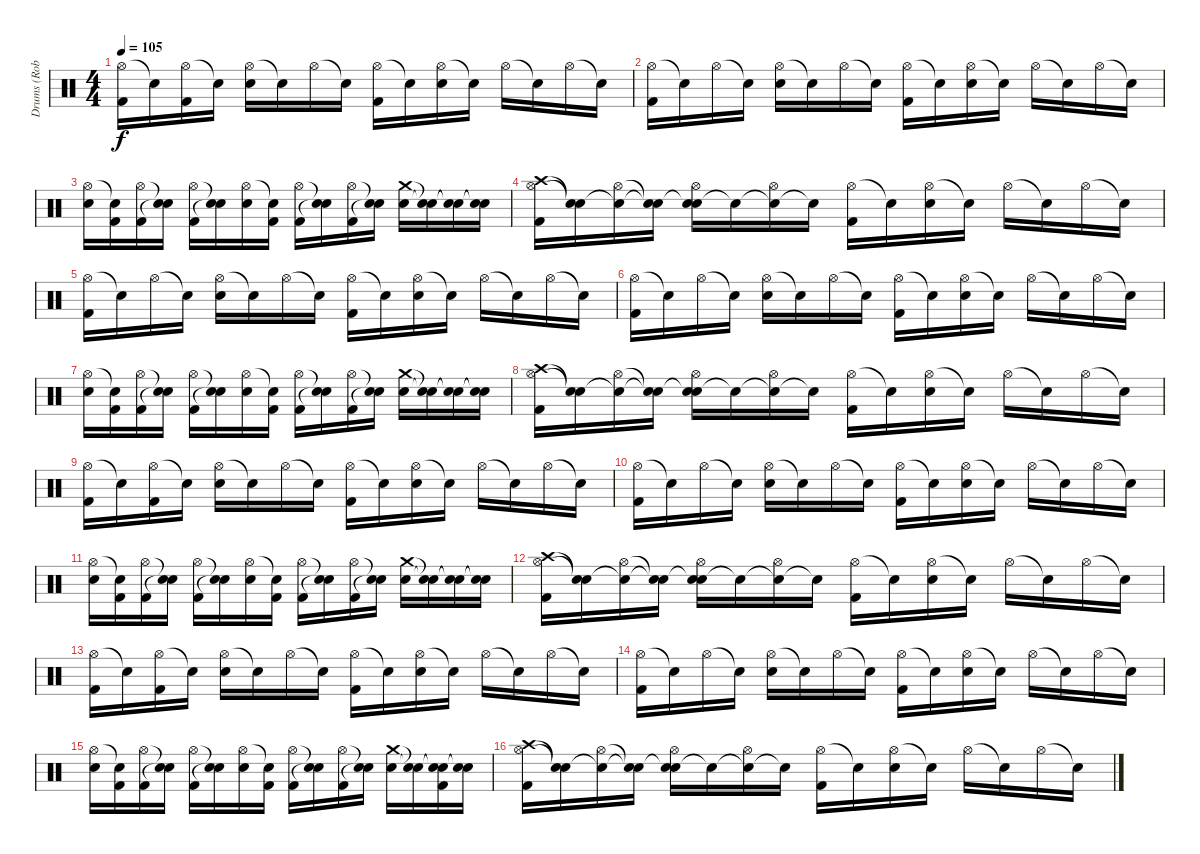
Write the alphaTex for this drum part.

\track ("Drums (Rob Bourdon)" "Drums (Rob") {instrument percussion}
\staff {score}
\articulation defaults
\ts (4 4)
\tempo 105
\clef neutral
\ks c
("Hi-Hat (open)" "Kick (hit) 2").16{dy f} "Snare (hit)"{t}.16 ("Hi-Hat (open)" "Kick (hit) 2").16 "Snare (hit)"{t}.16 ("Hi-Hat (open)" "Electric Snare (hit)").16 "Snare (hit)"{t}.16 "Hi-Hat (open)".16 "Snare (hit)"{t}.16 ("Hi-Hat (open)" "Kick (hit) 2").16 "Snare (hit)"{t}.16 ("Hi-Hat (open)" "Electric Snare (hit)").16 "Snare (hit)"{t}.16 "Hi-Hat (open)".16 "Snare (hit)"{t}.16 "Hi-Hat (open)".16 "Snare (hit)"{t}.16 |
("Hi-Hat (open)" "Kick (hit) 2").16 "Snare (hit)"{t}.16 "Hi-Hat (open)".16 "Snare (hit)"{t}.16 ("Hi-Hat (open)" "Electric Snare (hit)").16 "Snare (hit)"{t}.16 "Hi-Hat (open)".16 "Snare (hit)"{t}.16 ("Hi-Hat (open)" "Kick (hit) 2").16 "Snare (hit)"{t}.16 ("Hi-Hat (open)" "Electric Snare (hit)").16 "Snare (hit)"{t}.16 "Hi-Hat (open)".16 "Snare (hit)"{t}.16 "Hi-Hat (open)".16 "Snare (hit)"{t}.16 |
("Hi-Hat (open)" "Electric Snare (hit)").16 ("Snare (hit)"{t} "Kick (hit) 2").16 ("Hi-Hat (open)" "Kick (hit) 2").16 ("Snare (hit)"{t} "Snare (hit)"{t}).16 ("Hi-Hat (open)" "Kick (hit) 2").16 ("Snare (hit)"{t} "Snare (hit)"{t}).16 ("Hi-Hat (open)" "Electric Snare (hit)").16 ("Snare (hit)"{t} "Kick (hit) 2").16 ("Hi-Hat (open)" "Kick (hit) 2").16 ("Snare (hit)"{t} "Snare (hit)"{t}).16 ("Hi-Hat (open)" "Kick (hit) 2").16 ("Snare (hit)"{t} "Snare (hit)"{t}).16 ("Crash medium (hit)" "Electric Snare (hit)").16 ("Snare (hit)"{t} "Snare (hit)"{t}).16 ("Snare (hit)"{t} "Snare (hit)"{t}).16 ("Snare (hit)"{t} "Snare (hit)"{t}).16 |
("Crash high (hit)" "Hi-Hat (open)" "Kick (hit) 2").16 ("Snare (hit)"{t} "Snare (hit)"{t}).16 ("Snare (hit)"{t} "Hi-Hat (open)").16 ("Snare (hit)"{t} "Snare (hit)"{t}).16 ("Snare (hit)"{t} "Hi-Hat (open)" "Electric Snare (hit)").16 "Snare (hit)"{t}.16 ("Snare (hit)"{t} "Hi-Hat (open)").16 "Snare (hit)"{t}.16 ("Hi-Hat (open)" "Kick (hit) 2").16 "Snare (hit)"{t}.16 ("Hi-Hat (open)" "Electric Snare (hit)").16 "Snare (hit)"{t}.16 "Hi-Hat (open)".16 "Snare (hit)"{t}.16 "Hi-Hat (open)".16 "Snare (hit)"{t}.16 |
("Hi-Hat (open)" "Kick (hit) 2").16 "Snare (hit)"{t}.16 "Hi-Hat (open)".16 "Snare (hit)"{t}.16 ("Hi-Hat (open)" "Electric Snare (hit)").16 "Snare (hit)"{t}.16 "Hi-Hat (open)".16 "Snare (hit)"{t}.16 ("Hi-Hat (open)" "Kick (hit) 2").16 "Snare (hit)"{t}.16 ("Hi-Hat (open)" "Electric Snare (hit)").16 "Snare (hit)"{t}.16 "Hi-Hat (open)".16 "Snare (hit)"{t}.16 "Hi-Hat (open)".16 "Snare (hit)"{t}.16 |
("Hi-Hat (open)" "Kick (hit) 2").16 "Snare (hit)"{t}.16 "Hi-Hat (open)".16 "Snare (hit)"{t}.16 ("Hi-Hat (open)" "Electric Snare (hit)").16 "Snare (hit)"{t}.16 "Hi-Hat (open)".16 "Snare (hit)"{t}.16 ("Hi-Hat (open)" "Kick (hit) 2").16 "Snare (hit)"{t}.16 ("Hi-Hat (open)" "Electric Snare (hit)").16 "Snare (hit)"{t}.16 "Hi-Hat (open)".16 "Snare (hit)"{t}.16 "Hi-Hat (open)".16 "Snare (hit)"{t}.16 |
("Hi-Hat (open)" "Electric Snare (hit)").16 ("Snare (hit)"{t} "Kick (hit) 2").16 ("Hi-Hat (open)" "Kick (hit) 2").16 ("Snare (hit)"{t} "Snare (hit)"{t}).16 ("Hi-Hat (open)" "Kick (hit) 2").16 ("Snare (hit)"{t} "Snare (hit)"{t}).16 ("Hi-Hat (open)" "Electric Snare (hit)").16 ("Snare (hit)"{t} "Kick (hit) 2").16 ("Hi-Hat (open)" "Kick (hit) 2").16 ("Snare (hit)"{t} "Snare (hit)"{t}).16 ("Hi-Hat (open)" "Kick (hit) 2").16 ("Snare (hit)"{t} "Snare (hit)"{t}).16 ("Crash medium (hit)" "Electric Snare (hit)").16 ("Snare (hit)"{t} "Snare (hit)"{t}).16 ("Snare (hit)"{t} "Snare (hit)"{t}).16 ("Snare (hit)"{t} "Snare (hit)"{t}).16 |
("Crash high (hit)" "Hi-Hat (open)" "Kick (hit) 2").16 ("Snare (hit)"{t} "Snare (hit)"{t}).16 ("Snare (hit)"{t} "Hi-Hat (open)").16 ("Snare (hit)"{t} "Snare (hit)"{t}).16 ("Snare (hit)"{t} "Hi-Hat (open)" "Electric Snare (hit)").16 "Snare (hit)"{t}.16 ("Snare (hit)"{t} "Hi-Hat (open)").16 "Snare (hit)"{t}.16 ("Hi-Hat (open)" "Kick (hit) 2").16 "Snare (hit)"{t}.16 ("Hi-Hat (open)" "Electric Snare (hit)").16 "Snare (hit)"{t}.16 "Hi-Hat (open)".16 "Snare (hit)"{t}.16 "Hi-Hat (open)".16 "Snare (hit)"{t}.16 |
("Hi-Hat (open)" "Kick (hit) 2").16 "Snare (hit)"{t}.16 ("Hi-Hat (open)" "Kick (hit) 2").16 "Snare (hit)"{t}.16 ("Hi-Hat (open)" "Electric Snare (hit)").16 "Snare (hit)"{t}.16 "Hi-Hat (open)".16 "Snare (hit)"{t}.16 ("Hi-Hat (open)" "Kick (hit) 2").16 "Snare (hit)"{t}.16 ("Hi-Hat (open)" "Electric Snare (hit)").16 "Snare (hit)"{t}.16 "Hi-Hat (open)".16 "Snare (hit)"{t}.16 "Hi-Hat (open)".16 "Snare (hit)"{t}.16 |
("Hi-Hat (open)" "Kick (hit) 2").16 "Snare (hit)"{t}.16 "Hi-Hat (open)".16 "Snare (hit)"{t}.16 ("Hi-Hat (open)" "Electric Snare (hit)").16 "Snare (hit)"{t}.16 "Hi-Hat (open)".16 "Snare (hit)"{t}.16 ("Hi-Hat (open)" "Kick (hit) 2").16 "Snare (hit)"{t}.16 ("Hi-Hat (open)" "Electric Snare (hit)").16 "Snare (hit)"{t}.16 "Hi-Hat (open)".16 "Snare (hit)"{t}.16 "Hi-Hat (open)".16 "Snare (hit)"{t}.16 |
("Hi-Hat (open)" "Electric Snare (hit)").16 ("Snare (hit)"{t} "Kick (hit) 2").16 ("Hi-Hat (open)" "Kick (hit) 2").16 ("Snare (hit)"{t} "Snare (hit)"{t}).16 ("Hi-Hat (open)" "Kick (hit) 2").16 ("Snare (hit)"{t} "Snare (hit)"{t}).16 ("Hi-Hat (open)" "Electric Snare (hit)").16 ("Snare (hit)"{t} "Kick (hit) 2").16 ("Hi-Hat (open)" "Kick (hit) 2").16 ("Snare (hit)"{t} "Snare (hit)"{t}).16 ("Hi-Hat (open)" "Kick (hit) 2").16 ("Snare (hit)"{t} "Snare (hit)"{t}).16 ("Crash medium (hit)" "Electric Snare (hit)").16 ("Snare (hit)"{t} "Snare (hit)"{t}).16 ("Snare (hit)"{t} "Snare (hit)"{t}).16 ("Snare (hit)"{t} "Snare (hit)"{t}).16 |
("Crash high (hit)" "Hi-Hat (open)" "Kick (hit) 2").16 ("Snare (hit)"{t} "Snare (hit)"{t}).16 ("Snare (hit)"{t} "Hi-Hat (open)").16 ("Snare (hit)"{t} "Snare (hit)"{t}).16 ("Snare (hit)"{t} "Hi-Hat (open)" "Electric Snare (hit)").16 "Snare (hit)"{t}.16 ("Snare (hit)"{t} "Hi-Hat (open)").16 "Snare (hit)"{t}.16 ("Hi-Hat (open)" "Kick (hit) 2").16 "Snare (hit)"{t}.16 ("Hi-Hat (open)" "Electric Snare (hit)").16 "Snare (hit)"{t}.16 "Hi-Hat (open)".16 "Snare (hit)"{t}.16 "Hi-Hat (open)".16 "Snare (hit)"{t}.16 |
("Hi-Hat (open)" "Kick (hit) 2").16 "Snare (hit)"{t}.16 ("Hi-Hat (open)" "Kick (hit) 2").16 "Snare (hit)"{t}.16 ("Hi-Hat (open)" "Electric Snare (hit)").16 "Snare (hit)"{t}.16 "Hi-Hat (open)".16 "Snare (hit)"{t}.16 ("Hi-Hat (open)" "Kick (hit) 2").16 "Snare (hit)"{t}.16 ("Hi-Hat (open)" "Electric Snare (hit)").16 "Snare (hit)"{t}.16 "Hi-Hat (open)".16 "Snare (hit)"{t}.16 "Hi-Hat (open)".16 "Snare (hit)"{t}.16 |
("Hi-Hat (open)" "Kick (hit) 2").16 "Snare (hit)"{t}.16 "Hi-Hat (open)".16 "Snare (hit)"{t}.16 ("Hi-Hat (open)" "Electric Snare (hit)").16 "Snare (hit)"{t}.16 "Hi-Hat (open)".16 "Snare (hit)"{t}.16 ("Hi-Hat (open)" "Kick (hit) 2").16 "Snare (hit)"{t}.16 ("Hi-Hat (open)" "Electric Snare (hit)").16 "Snare (hit)"{t}.16 "Hi-Hat (open)".16 "Snare (hit)"{t}.16 "Hi-Hat (open)".16 "Snare (hit)"{t}.16 |
("Hi-Hat (open)" "Electric Snare (hit)").16 ("Snare (hit)"{t} "Kick (hit) 2").16 ("Hi-Hat (open)" "Kick (hit) 2").16 ("Snare (hit)"{t} "Snare (hit)"{t}).16 ("Hi-Hat (open)" "Kick (hit) 2").16 ("Snare (hit)"{t} "Snare (hit)"{t}).16 ("Hi-Hat (open)" "Electric Snare (hit)").16 ("Snare (hit)"{t} "Kick (hit) 2").16 ("Hi-Hat (open)" "Kick (hit) 2").16 ("Snare (hit)"{t} "Snare (hit)"{t}).16 ("Hi-Hat (open)" "Kick (hit) 2").16 ("Snare (hit)"{t} "Snare (hit)"{t}).16 ("Crash medium (hit)" "Electric Snare (hit)").16 ("Snare (hit)"{t} "Snare (hit)"{t}).16 ("Snare (hit)"{t} "Snare (hit)"{t} "Kick (hit) 2").16 ("Snare (hit)"{t} "Snare (hit)"{t}).16 |
("Crash high (hit)" "Hi-Hat (open)" "Kick (hit) 2").16{volume 13} ("Snare (hit)"{t} "Snare (hit)"{t}).16 ("Snare (hit)"{t} "Hi-Hat (open)").16 ("Snare (hit)"{t} "Snare (hit)"{t}).16 ("Snare (hit)"{t} "Hi-Hat (open)" "Electric Snare (hit)").16 "Snare (hit)"{t}.16 ("Snare (hit)"{t} "Hi-Hat (open)").16 "Snare (hit)"{t}.16 ("Hi-Hat (open)" "Kick (hit) 2").16 "Snare (hit)"{t}.16 ("Hi-Hat (open)" "Electric Snare (hit)").16 "Snare (hit)"{t}.16 "Hi-Hat (open)".16 "Snare (hit)"{t}.16 "Hi-Hat (open)".16 "Snare (hit)"{t}.16
